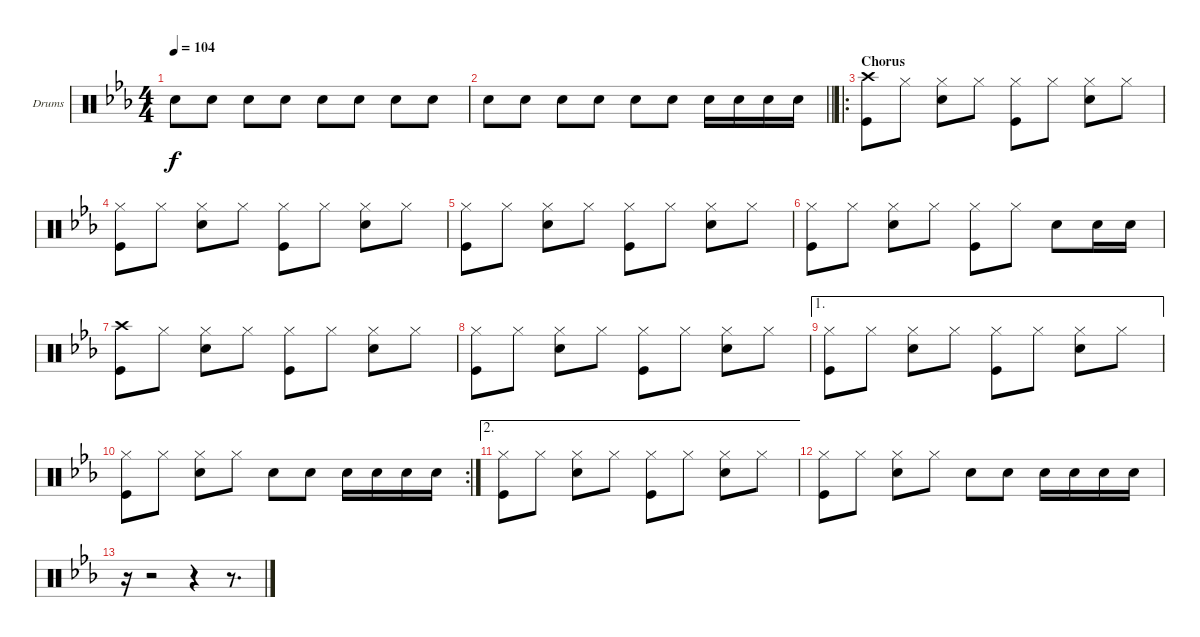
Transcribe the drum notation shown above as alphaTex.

\bracketExtendMode groupsimilarinstruments
\firstSystemTrackNameOrientation horizontal
\otherSystemsTrackNameOrientation horizontal
\track ("Drumkit" "Drums") {instrument percussion}
\staff {score}
\articulation defaults
\ts (4 4)
\tempo 104
\clef neutral
\ks eb "Snare (hit) 2".8{dy f} "Snare (hit) 2".8 "Snare (hit) 2".8 "Snare (hit) 2".8 "Snare (hit) 2".8 "Snare (hit) 2".8 "Snare (hit) 2".8 "Snare (hit) 2".8
|
\barLineRight lightlight "Snare (hit) 2".8 "Snare (hit) 2".8 "Snare (hit) 2".8 "Snare (hit) 2".8 "Snare (hit) 2".8 "Snare (hit) 2".8 "Snare (hit) 2".16 "Snare (hit) 2".16 "Snare (hit) 2".16 "Snare (hit) 2".16
|
\ro
\section ("" "Chorus")
("Crash high (hit)" "Kick (hit)").8 "Hi-Hat (closed)".8 ("Hi-Hat (closed)" "Snare (hit) 2").8 "Hi-Hat (closed)".8 ("Hi-Hat (closed)" "Kick (hit)").8 "Hi-Hat (closed)".8 ("Hi-Hat (closed)" "Snare (hit) 2").8 "Hi-Hat (closed)".8 |
("Hi-Hat (closed)" "Kick (hit)").8 "Hi-Hat (closed)".8 ("Hi-Hat (closed)" "Snare (hit) 2").8 "Hi-Hat (closed)".8 ("Hi-Hat (closed)" "Kick (hit)").8 "Hi-Hat (closed)".8 ("Hi-Hat (closed)" "Snare (hit) 2").8 "Hi-Hat (closed)".8 |
("Hi-Hat (closed)" "Kick (hit)").8 "Hi-Hat (closed)".8 ("Hi-Hat (closed)" "Snare (hit) 2").8 "Hi-Hat (closed)".8 ("Hi-Hat (closed)" "Kick (hit)").8 "Hi-Hat (closed)".8 ("Hi-Hat (closed)" "Snare (hit) 2").8 "Hi-Hat (closed)".8 |
("Hi-Hat (closed)" "Kick (hit)").8 "Hi-Hat (closed)".8 ("Hi-Hat (closed)" "Snare (hit) 2").8 "Hi-Hat (closed)".8 ("Hi-Hat (closed)" "Kick (hit)").8 "Hi-Hat (closed)".8 "Snare (hit) 2".8 "Snare (hit) 2".16 "Snare (hit) 2".16 |
("Crash high (hit)" "Kick (hit)").8 "Hi-Hat (closed)".8 ("Hi-Hat (closed)" "Snare (hit) 2").8 "Hi-Hat (closed)".8 ("Hi-Hat (closed)" "Kick (hit)").8 "Hi-Hat (closed)".8 ("Hi-Hat (closed)" "Snare (hit) 2").8 "Hi-Hat (closed)".8 |
("Hi-Hat (closed)" "Kick (hit)").8 "Hi-Hat (closed)".8 ("Hi-Hat (closed)" "Snare (hit) 2").8 "Hi-Hat (closed)".8 ("Hi-Hat (closed)" "Kick (hit)").8 "Hi-Hat (closed)".8 ("Hi-Hat (closed)" "Snare (hit) 2").8 "Hi-Hat (closed)".8 |
\ae 1
("Hi-Hat (closed)" "Kick (hit)").8 "Hi-Hat (closed)".8 ("Hi-Hat (closed)" "Snare (hit) 2").8 "Hi-Hat (closed)".8 ("Hi-Hat (closed)" "Kick (hit)").8 "Hi-Hat (closed)".8 ("Hi-Hat (closed)" "Snare (hit) 2").8 "Hi-Hat (closed)".8 |
\rc 2
("Hi-Hat (closed)" "Kick (hit)").8 "Hi-Hat (closed)".8 ("Hi-Hat (closed)" "Snare (hit) 2").8 "Hi-Hat (closed)".8 "Snare (hit) 2".8 "Snare (hit) 2".8 "Snare (hit) 2".16 "Snare (hit) 2".16 "Snare (hit) 2".16 "Snare (hit) 2".16 |
\ae 2
("Hi-Hat (closed)" "Kick (hit)").8 "Hi-Hat (closed)".8 ("Hi-Hat (closed)" "Snare (hit) 2").8 "Hi-Hat (closed)".8 ("Hi-Hat (closed)" "Kick (hit)").8 "Hi-Hat (closed)".8 ("Hi-Hat (closed)" "Snare (hit) 2").8 "Hi-Hat (closed)".8 |
("Hi-Hat (closed)" "Kick (hit)").8 "Hi-Hat (closed)".8 ("Hi-Hat (closed)" "Snare (hit) 2").8 "Hi-Hat (closed)".8 "Snare (hit) 2".8 "Snare (hit) 2".8 "Snare (hit) 2".16 "Snare (hit) 2".16 "Snare (hit) 2".16 "Snare (hit) 2".16 |
r.16 r.2 r.4 r.8{d}
